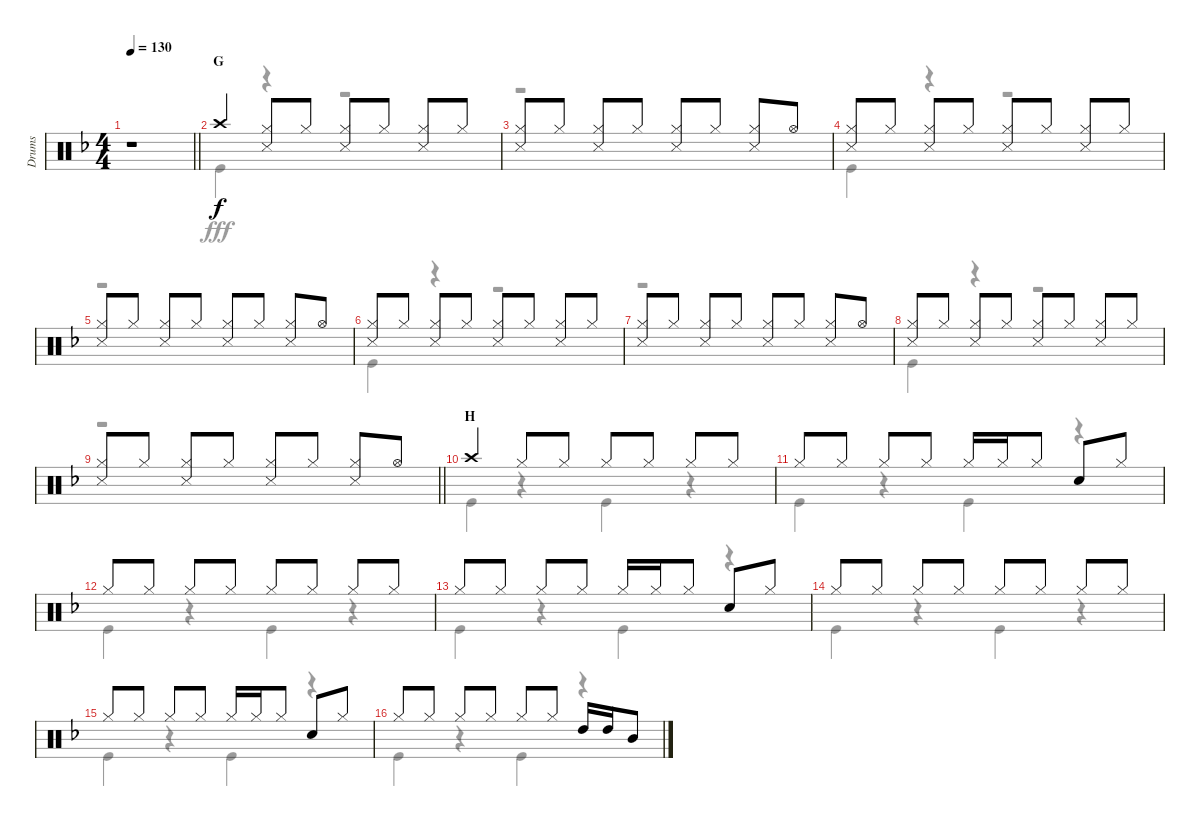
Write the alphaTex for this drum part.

\track ("Drums" "Drums") {instrument percussion}
\staff {score}
\articulation defaults
\voice
\ts (4 4)
\tempo 130
\clef neutral
\barLineRight lightlight
\ks f
r.1{dy f} |
\section ("" "G")
"Crash high (hit)".4 ("Hi-Hat (closed)" "Snare (side stick) 3").8 "Hi-Hat (closed)".8 ("Hi-Hat (closed)" "Snare (side stick) 3").8 "Hi-Hat (closed)".8 ("Hi-Hat (closed)" "Snare (side stick) 3").8 "Hi-Hat (closed)".8 |
("Hi-Hat (closed)" "Snare (side stick) 3").8 "Hi-Hat (closed)".8 ("Hi-Hat (closed)" "Snare (side stick) 3").8 "Hi-Hat (closed)".8 ("Hi-Hat (closed)" "Snare (side stick) 3").8 "Hi-Hat (closed)".8 ("Hi-Hat (closed)" "Snare (side stick) 3").8 "Hi-Hat (open)".8 |
("Hi-Hat (closed)" "Snare (side stick) 3").8 "Hi-Hat (closed)".8 ("Hi-Hat (closed)" "Snare (side stick) 3").8 "Hi-Hat (closed)".8 ("Hi-Hat (closed)" "Snare (side stick) 3").8 "Hi-Hat (closed)".8 ("Hi-Hat (closed)" "Snare (side stick) 3").8 "Hi-Hat (closed)".8 |
("Hi-Hat (closed)" "Snare (side stick) 3").8 "Hi-Hat (closed)".8 ("Hi-Hat (closed)" "Snare (side stick) 3").8 "Hi-Hat (closed)".8 ("Hi-Hat (closed)" "Snare (side stick) 3").8 "Hi-Hat (closed)".8 ("Hi-Hat (closed)" "Snare (side stick) 3").8 "Hi-Hat (open)".8 |
("Hi-Hat (closed)" "Snare (side stick) 3").8 "Hi-Hat (closed)".8 ("Hi-Hat (closed)" "Snare (side stick) 3").8 "Hi-Hat (closed)".8 ("Hi-Hat (closed)" "Snare (side stick) 3").8 "Hi-Hat (closed)".8 ("Hi-Hat (closed)" "Snare (side stick) 3").8 "Hi-Hat (closed)".8 |
("Hi-Hat (closed)" "Snare (side stick) 3").8 "Hi-Hat (closed)".8 ("Hi-Hat (closed)" "Snare (side stick) 3").8 "Hi-Hat (closed)".8 ("Hi-Hat (closed)" "Snare (side stick) 3").8 "Hi-Hat (closed)".8 ("Hi-Hat (closed)" "Snare (side stick) 3").8 "Hi-Hat (open)".8 |
("Hi-Hat (closed)" "Snare (side stick) 3").8 "Hi-Hat (closed)".8 ("Hi-Hat (closed)" "Snare (side stick) 3").8 "Hi-Hat (closed)".8 ("Hi-Hat (closed)" "Snare (side stick) 3").8 "Hi-Hat (closed)".8 ("Hi-Hat (closed)" "Snare (side stick) 3").8 "Hi-Hat (closed)".8 |
\barLineRight lightlight
("Hi-Hat (closed)" "Snare (side stick) 3").8 "Hi-Hat (closed)".8 ("Hi-Hat (closed)" "Snare (side stick) 3").8 "Hi-Hat (closed)".8 ("Hi-Hat (closed)" "Snare (side stick) 3").8 "Hi-Hat (closed)".8 ("Hi-Hat (closed)" "Snare (side stick) 3").8 "Hi-Hat (open)".8 |
\section ("" "H")
"Crash high (hit)".4 "Hi-Hat (closed)".8 "Hi-Hat (closed)".8 "Hi-Hat (closed)".8 "Hi-Hat (closed)".8 "Hi-Hat (closed)".8 "Hi-Hat (closed)".8 |
"Hi-Hat (closed)".8 "Hi-Hat (closed)".8 "Hi-Hat (closed)".8 "Hi-Hat (closed)".8 "Hi-Hat (closed)".16 "Hi-Hat (closed)".16 "Hi-Hat (closed)".8 "Snare (hit) 2".8 "Hi-Hat (closed)".8 |
"Hi-Hat (closed)".8 "Hi-Hat (closed)".8 "Hi-Hat (closed)".8 "Hi-Hat (closed)".8 "Hi-Hat (closed)".8 "Hi-Hat (closed)".8 "Hi-Hat (closed)".8 "Hi-Hat (closed)".8 |
"Hi-Hat (closed)".8 "Hi-Hat (closed)".8 "Hi-Hat (closed)".8 "Hi-Hat (closed)".8 "Hi-Hat (closed)".16 "Hi-Hat (closed)".16 "Hi-Hat (closed)".8 "Snare (hit) 2".8 "Hi-Hat (closed)".8 |
"Hi-Hat (closed)".8 "Hi-Hat (closed)".8 "Hi-Hat (closed)".8 "Hi-Hat (closed)".8 "Hi-Hat (closed)".8 "Hi-Hat (closed)".8 "Hi-Hat (closed)".8 "Hi-Hat (closed)".8 |
"Hi-Hat (closed)".8 "Hi-Hat (closed)".8 "Hi-Hat (closed)".8 "Hi-Hat (closed)".8 "Hi-Hat (closed)".16 "Hi-Hat (closed)".16 "Hi-Hat (closed)".8 "Snare (hit) 2".8 "Hi-Hat (closed)".8 |
"Hi-Hat (closed)".8 "Hi-Hat (closed)".8 "Hi-Hat (closed)".8 "Hi-Hat (closed)".8 "Hi-Hat (closed)".8 "Hi-Hat (closed)".8 "High Tom (hit)".16 "High Tom (hit)".16 "Mid Tom (hit)".8
\voice
\clef neutral
\ottava regular
\simile none
\barLineRight lightlight
\ks f
r.1{dy fff} |
"Kick (hit)".4 r.4 r.2 |
r.1 |
"Kick (hit)".4 r.4 r.2 |
r.1 |
"Kick (hit)".4 r.4 r.2 |
r.1 |
"Kick (hit)".4 r.4 r.2 |
\barLineRight lightlight
r.1 |
"Kick (hit)".4 r.4 "Kick (hit)".4 r.4 |
"Kick (hit)".4 r.4 "Kick (hit)".4 r.4 |
"Kick (hit)".4 r.4 "Kick (hit)".4 r.4 |
"Kick (hit)".4 r.4 "Kick (hit)".4 r.4 |
"Kick (hit)".4 r.4 "Kick (hit)".4 r.4 |
"Kick (hit)".4 r.4 "Kick (hit)".4 r.4 |
"Kick (hit)".4 r.4 "Kick (hit)".4 r.4
